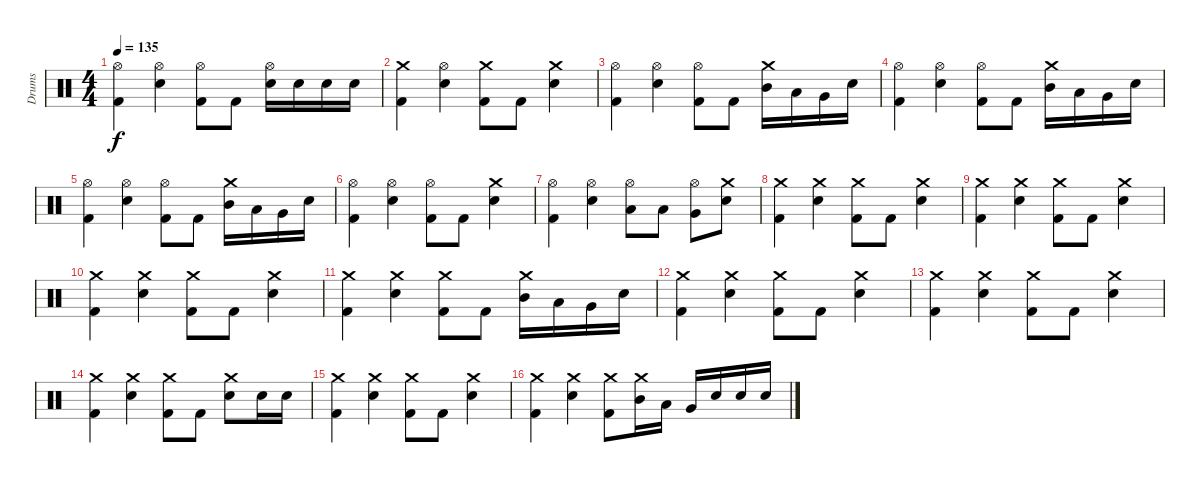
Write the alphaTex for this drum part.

\track ("Drums" "Drums") {instrument percussion}
\staff {score}
\articulation defaults
\ts (4 4)
\tempo 135
\clef neutral
\ks c
("Hi-Hat (open)" "Kick (hit) 2").4{dy f} ("Hi-Hat (open)" "Electric Snare (hit)").4 ("Hi-Hat (open)" "Kick (hit) 2").8 "Kick (hit) 2".8 ("Hi-Hat (open)" "Electric Snare (hit)").16 "Electric Snare (hit)".16 "Electric Snare (hit)".16 "Electric Snare (hit)".16 |
("Crash medium (hit)" "Kick (hit) 2").4 ("Hi-Hat (open)" "Electric Snare (hit)").4 ("Crash medium (hit)" "Kick (hit) 2").8 "Kick (hit) 2".8 ("Crash medium (hit)" "Electric Snare (hit)").4 |
("Hi-Hat (open)" "Kick (hit) 2").4 ("Hi-Hat (open)" "Electric Snare (hit)").4 ("Hi-Hat (open)" "Kick (hit) 2").8 "Kick (hit) 2".8 ("Mid Tom (hit)" "Crash medium (hit)").16 "Low Tom (hit)".16 "Very Low Tom (hit)".16 "Electric Snare (hit)".16 |
("Hi-Hat (open)" "Kick (hit) 2").4 ("Hi-Hat (open)" "Electric Snare (hit)").4 ("Hi-Hat (open)" "Kick (hit) 2").8 "Kick (hit) 2".8 ("Mid Tom (hit)" "Crash medium (hit)").16 "Low Tom (hit)".16 "Very Low Tom (hit)".16 "Electric Snare (hit)".16 |
("Hi-Hat (open)" "Kick (hit) 2").4 ("Hi-Hat (open)" "Electric Snare (hit)").4 ("Hi-Hat (open)" "Kick (hit) 2").8 "Kick (hit) 2".8 ("Mid Tom (hit)" "Crash medium (hit)").16 "Low Tom (hit)".16 "Very Low Tom (hit)".16 "Electric Snare (hit)".16 |
("Hi-Hat (open)" "Kick (hit) 2").4 ("Hi-Hat (open)" "Electric Snare (hit)").4 ("Hi-Hat (open)" "Kick (hit) 2").8 "Kick (hit) 2".8 ("Crash medium (hit)" "Electric Snare (hit)").4 |
("Hi-Hat (open)" "Kick (hit) 2").4 ("Hi-Hat (open)" "Electric Snare (hit)").4 ("Hi-Hat (open)" "Low Tom (hit)").8 "Low Tom (hit)".8 ("Hi-Hat (open)" "Very Low Tom (hit)").8 ("Crash medium (hit)" "Electric Snare (hit)").8 |
("Crash medium (hit)" "Kick (hit) 2").4 ("Crash medium (hit)" "Electric Snare (hit)").4 ("Crash medium (hit)" "Kick (hit) 2").8 "Kick (hit) 2".8 ("Crash medium (hit)" "Electric Snare (hit)").4 |
("Crash medium (hit)" "Kick (hit) 2").4 ("Crash medium (hit)" "Electric Snare (hit)").4 ("Crash medium (hit)" "Kick (hit) 2").8 "Kick (hit) 2".8 ("Crash medium (hit)" "Electric Snare (hit)").4 |
("Crash medium (hit)" "Kick (hit) 2").4 ("Crash medium (hit)" "Electric Snare (hit)").4 ("Crash medium (hit)" "Kick (hit) 2").8 "Kick (hit) 2".8 ("Crash medium (hit)" "Electric Snare (hit)").4 |
("Crash medium (hit)" "Kick (hit) 2").4 ("Crash medium (hit)" "Electric Snare (hit)").4 ("Crash medium (hit)" "Kick (hit) 2").8 "Kick (hit) 2".8 ("Mid Tom (hit)" "Crash medium (hit)").16 "Low Tom (hit)".16 "Very Low Tom (hit)".16 "Electric Snare (hit)".16 |
("Crash medium (hit)" "Kick (hit) 2").4 ("Crash medium (hit)" "Electric Snare (hit)").4 ("Crash medium (hit)" "Kick (hit) 2").8 "Kick (hit) 2".8 ("Crash medium (hit)" "Electric Snare (hit)").4 |
("Crash medium (hit)" "Kick (hit) 2").4 ("Crash medium (hit)" "Electric Snare (hit)").4 ("Crash medium (hit)" "Kick (hit) 2").8 "Kick (hit) 2".8 ("Crash medium (hit)" "Electric Snare (hit)").4 |
("Crash medium (hit)" "Kick (hit) 2").4 ("Crash medium (hit)" "Electric Snare (hit)").4 ("Crash medium (hit)" "Kick (hit) 2").8 "Kick (hit) 2".8 ("Crash medium (hit)" "Electric Snare (hit)").8 "Electric Snare (hit)".16 "Electric Snare (hit)".16 |
("Crash medium (hit)" "Kick (hit) 2").4 ("Crash medium (hit)" "Electric Snare (hit)").4 ("Crash medium (hit)" "Kick (hit) 2").8 "Kick (hit) 2".8 ("Crash medium (hit)" "Electric Snare (hit)").4 |
("Crash medium (hit)" "Kick (hit) 2").4 ("Crash medium (hit)" "Electric Snare (hit)").4 ("Crash medium (hit)" "Kick (hit) 2").8 ("Mid Tom (hit)" "Crash medium (hit)").16 "Low Tom (hit)".16 "Very Low Tom (hit)".16 "Electric Snare (hit)".16 "Electric Snare (hit)".16 "Electric Snare (hit)".16
